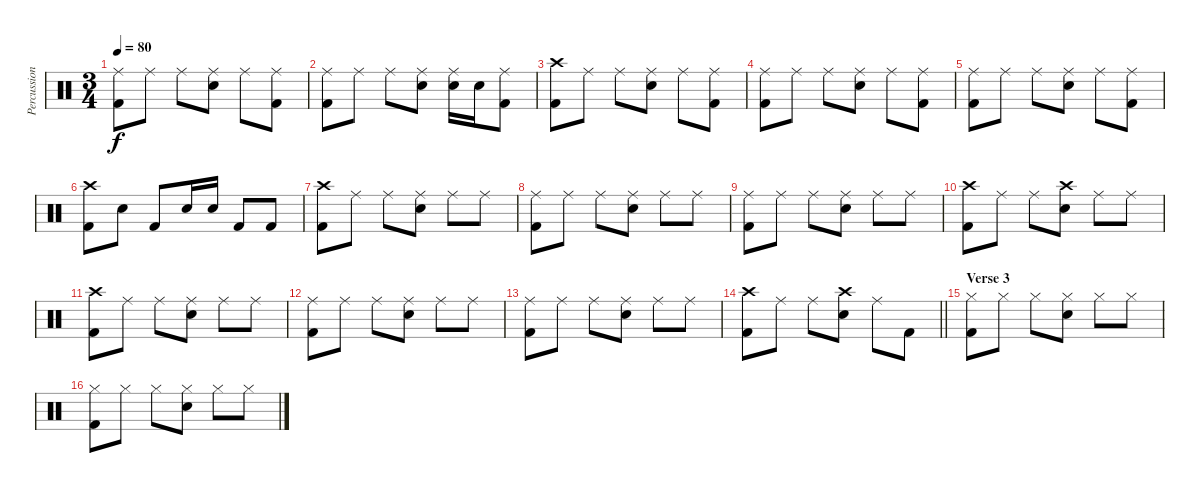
\track ("Percussion" "Percussion") {instrument percussion}
\staff {score}
\articulation defaults
\ts (3 4)
\tempo 80
\clef neutral
\ks c
("Ride (middle)" "Kick (hit) 2").8{dy f} "Ride (middle)".8 "Ride (middle)".8 ("Ride (middle)" "Snare (hit) 2").8 "Ride (middle)".8 ("Ride (middle)" "Kick (hit) 2").8 |
("Ride (middle)" "Kick (hit) 2").8 "Ride (middle)".8 "Ride (middle)".8 ("Ride (middle)" "Snare (hit) 2").8 ("Ride (middle)" "Snare (hit) 2").16 "Snare (hit) 2".16 ("Ride (middle)" "Kick (hit) 2").8 |
("Crash high (hit)" "Kick (hit) 2").8 "Ride (middle)".8 "Ride (middle)".8 ("Ride (middle)" "Snare (hit) 2").8 "Ride (middle)".8 ("Ride (middle)" "Kick (hit) 2").8 |
("Ride (middle)" "Kick (hit) 2").8 "Ride (middle)".8 "Ride (middle)".8 ("Ride (middle)" "Snare (hit) 2").8 "Ride (middle)".8 ("Ride (middle)" "Kick (hit) 2").8 |
("Ride (middle)" "Kick (hit) 2").8 "Ride (middle)".8 "Ride (middle)".8 ("Ride (middle)" "Snare (hit) 2").8 "Ride (middle)".8 ("Ride (middle)" "Kick (hit) 2").8 |
("Crash high (hit)" "Kick (hit) 2").8 "Snare (hit) 2".8 "Kick (hit) 2".8 "Snare (hit) 2".16 "Snare (hit) 2".16 "Kick (hit) 2".8 "Kick (hit) 2".8 |
("Crash high (hit)" "Kick (hit) 2").8 "Ride (middle)".8 "Ride (middle)".8 ("Ride (middle)" "Snare (hit) 2").8 "Ride (middle)".8 "Ride (middle)".8 |
("Ride (middle)" "Kick (hit) 2").8 "Ride (middle)".8 "Ride (middle)".8 ("Ride (middle)" "Snare (hit) 2").8 "Ride (middle)".8 "Ride (middle)".8 |
("Ride (middle)" "Kick (hit) 2").8 "Ride (middle)".8 "Ride (middle)".8 ("Ride (middle)" "Snare (hit) 2").8 "Ride (middle)".8 "Ride (middle)".8 |
("Crash high (hit)" "Kick (hit) 2").8 "Ride (middle)".8 "Ride (middle)".8 ("Crash high (hit)" "Snare (hit) 2").8 "Ride (middle)".8 "Ride (middle)".8 |
("Crash high (hit)" "Kick (hit) 2").8 "Ride (middle)".8 "Ride (middle)".8 ("Ride (middle)" "Snare (hit) 2").8 "Ride (middle)".8 "Ride (middle)".8 |
("Ride (middle)" "Kick (hit) 2").8 "Ride (middle)".8 "Ride (middle)".8 ("Ride (middle)" "Snare (hit) 2").8 "Ride (middle)".8 "Ride (middle)".8 |
("Ride (middle)" "Kick (hit) 2").8 "Ride (middle)".8 "Ride (middle)".8 ("Ride (middle)" "Snare (hit) 2").8 "Ride (middle)".8 "Ride (middle)".8 |
\barLineRight lightlight
("Crash high (hit)" "Kick (hit) 2").8 "Ride (middle)".8 "Ride (middle)".8 ("Crash high (hit)" "Snare (hit) 2").8 "Ride (middle)".8 "Kick (hit) 2".8 |
\section ("" "Verse 3")
("Hi-Hat (closed)" "Kick (hit) 2").8 "Hi-Hat (closed)".8 "Hi-Hat (closed)".8 ("Hi-Hat (closed)" "Snare (hit) 2").8 "Hi-Hat (closed)".8 "Hi-Hat (closed)".8 |
("Hi-Hat (closed)" "Kick (hit) 2").8 "Hi-Hat (closed)".8 "Hi-Hat (closed)".8 ("Hi-Hat (closed)" "Snare (hit) 2").8 "Hi-Hat (closed)".8 "Hi-Hat (closed)".8
